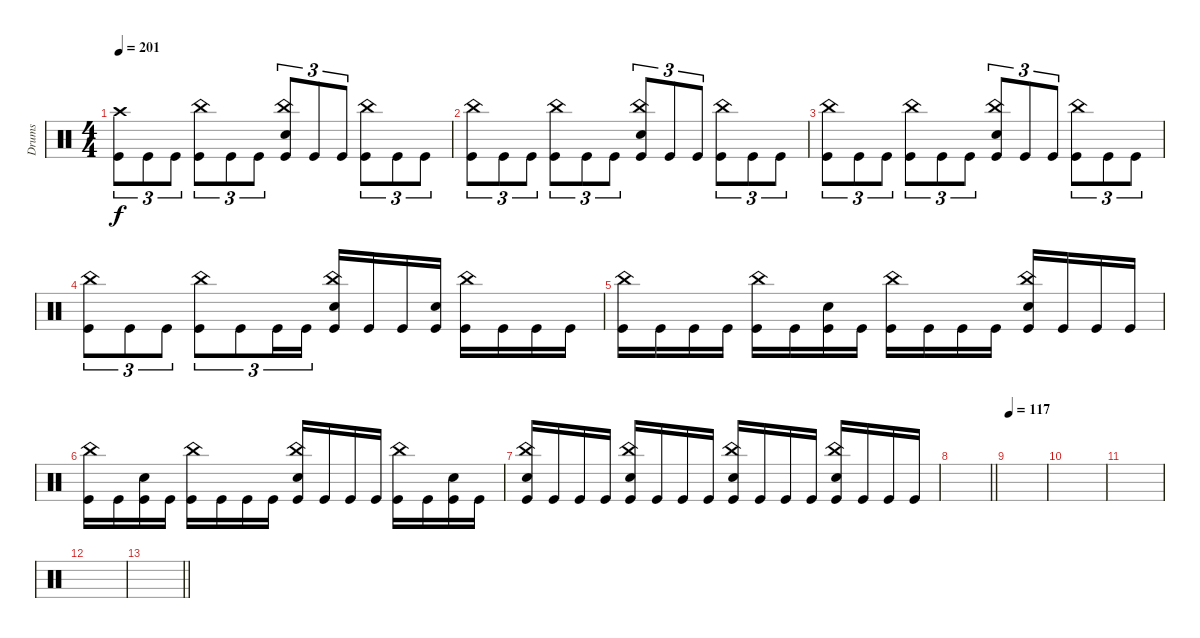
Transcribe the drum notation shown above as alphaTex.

\track ("Drums" "Drums") {instrument percussion}
\staff
\articulation defaults
\ts (4 4)
\tempo 201
\clef neutral
\ks c
("Crash high (hit)" "Kick (hit)").8{tu (3 2) dy f} "Kick (hit)".8{tu (3 2)} "Kick (hit)".8{tu (3 2)} ("China (hit)" "Kick (hit)").8{tu (3 2)} "Kick (hit)".8{tu (3 2)} "Kick (hit)".8{tu (3 2)} ("China (hit)" "Electric Snare (hit)" "Kick (hit)").8{tu (3 2)} "Kick (hit)".8{tu (3 2)} "Kick (hit)".8{tu (3 2)} ("China (hit)" "Kick (hit)").8{tu (3 2)} "Kick (hit)".8{tu (3 2)} "Kick (hit)".8{tu (3 2)} |
("China (hit)" "Kick (hit)").8{tu (3 2)} "Kick (hit)".8{tu (3 2)} "Kick (hit)".8{tu (3 2)} ("China (hit)" "Kick (hit)").8{tu (3 2)} "Kick (hit)".8{tu (3 2)} "Kick (hit)".8{tu (3 2)} ("China (hit)" "Electric Snare (hit)" "Kick (hit)").8{tu (3 2)} "Kick (hit)".8{tu (3 2)} "Kick (hit)".8{tu (3 2)} ("China (hit)" "Kick (hit)").8{tu (3 2)} "Kick (hit)".8{tu (3 2)} "Kick (hit)".8{tu (3 2)} |
("China (hit)" "Kick (hit)").8{tu (3 2)} "Kick (hit)".8{tu (3 2)} "Kick (hit)".8{tu (3 2)} ("China (hit)" "Kick (hit)").8{tu (3 2)} "Kick (hit)".8{tu (3 2)} "Kick (hit)".8{tu (3 2)} ("China (hit)" "Electric Snare (hit)" "Kick (hit)").8{tu (3 2)} "Kick (hit)".8{tu (3 2)} "Kick (hit)".8{tu (3 2)} ("China (hit)" "Kick (hit)").8{tu (3 2)} "Kick (hit)".8{tu (3 2)} "Kick (hit)".8{tu (3 2)} |
("China (hit)" "Kick (hit)").8{tu (3 2)} "Kick (hit)".8{tu (3 2)} "Kick (hit)".8{tu (3 2)} ("China (hit)" "Kick (hit)").8{tu (3 2)} "Kick (hit)".8{tu (3 2)} "Kick (hit)".16{tu (3 2)} "Kick (hit)".16{tu (3 2)} ("China (hit)" "Electric Snare (hit)" "Kick (hit)").16 "Kick (hit)".16 "Kick (hit)".16 ("Electric Snare (hit)" "Kick (hit)").16 ("China (hit)" "Kick (hit)").16 "Kick (hit)".16 "Kick (hit)".16 "Kick (hit)".16 |
("China (hit)" "Kick (hit)").16 "Kick (hit)".16 "Kick (hit)".16 "Kick (hit)".16 ("China (hit)" "Kick (hit)").16 "Kick (hit)".16 ("Electric Snare (hit)" "Kick (hit)").16 "Kick (hit)".16 ("China (hit)" "Kick (hit)").16 "Kick (hit)".16 "Kick (hit)".16 "Kick (hit)".16 ("China (hit)" "Electric Snare (hit)" "Kick (hit)").16 "Kick (hit)".16 "Kick (hit)".16 "Kick (hit)".16 |
("China (hit)" "Kick (hit)").16 "Kick (hit)".16 ("Electric Snare (hit)" "Kick (hit)").16 "Kick (hit)".16 ("China (hit)" "Kick (hit)").16 "Kick (hit)".16 "Kick (hit)".16 "Kick (hit)".16 ("China (hit)" "Electric Snare (hit)" "Kick (hit)").16 "Kick (hit)".16 "Kick (hit)".16 "Kick (hit)".16 ("China (hit)" "Kick (hit)").16 "Kick (hit)".16 ("Electric Snare (hit)" "Kick (hit)").16 "Kick (hit)".16 |
("China (hit)" "Electric Snare (hit)" "Kick (hit)").16 "Kick (hit)".16 "Kick (hit)".16 "Kick (hit)".16 ("China (hit)" "Electric Snare (hit)" "Kick (hit)").16 "Kick (hit)".16 "Kick (hit)".16 "Kick (hit)".16 ("China (hit)" "Electric Snare (hit)" "Kick (hit)").16 "Kick (hit)".16 "Kick (hit)".16 "Kick (hit)".16 ("China (hit)" "Electric Snare (hit)" "Kick (hit)").16 "Kick (hit)".16 "Kick (hit)".16 "Kick (hit)".16 |
\barLineRight lightlight
|
\tempo 117
|
|
|
|
\barLineRight lightlight
